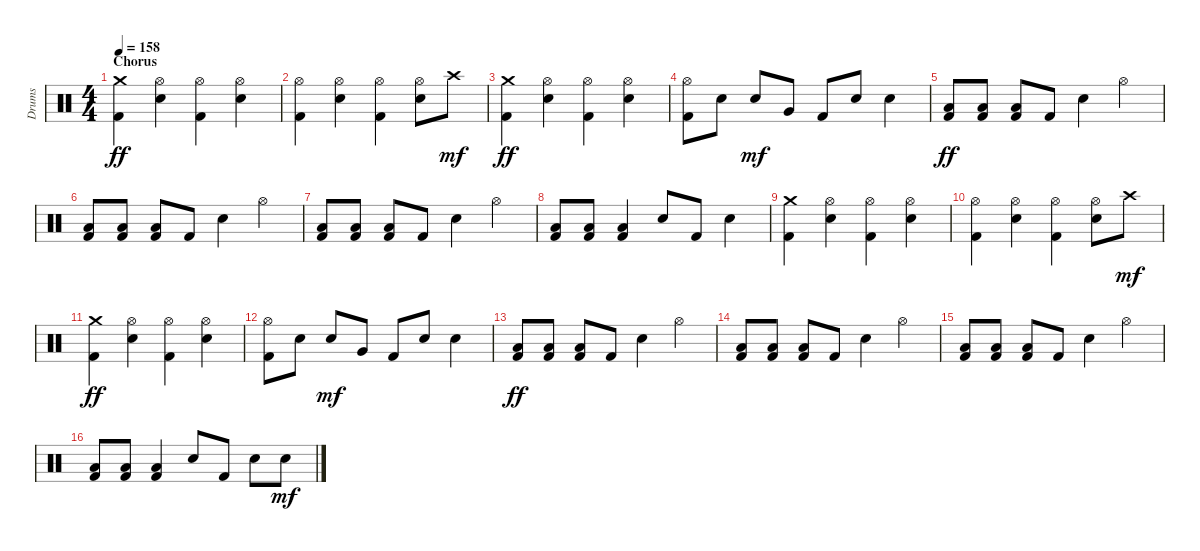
\track ("Drums" "Drums") {instrument percussion}
\staff {score}
\articulation defaults
\ts (4 4)
\section ("" "Chorus")
\tempo 158
\clef neutral
\ks c
("Crash medium (hit)" "Kick (hit) 2").4{dy ff} ("Hi-Hat (open)" "Electric Snare (hit)").4 ("Hi-Hat (open)" "Kick (hit) 2").4 ("Hi-Hat (open)" "Electric Snare (hit)").4 |
("Hi-Hat (open)" "Kick (hit) 2").4 ("Hi-Hat (open)" "Electric Snare (hit)").4 ("Hi-Hat (open)" "Kick (hit) 2").4 ("Hi-Hat (open)" "Electric Snare (hit)").8 "Crash high (hit)".8{dy mf} |
("Crash medium (hit)" "Kick (hit) 2").4{dy ff} ("Hi-Hat (open)" "Electric Snare (hit)").4 ("Hi-Hat (open)" "Kick (hit) 2").4 ("Hi-Hat (open)" "Electric Snare (hit)").4 |
("Hi-Hat (open)" "Kick (hit) 2").8 "Electric Snare (hit)".8 "Electric Snare (hit)".8{dy mf} "Very Low Tom (hit)".8 "Kick (hit) 2".8 "Electric Snare (hit)".8 "Electric Snare (hit)".4 |
("Low Floor Tom (hit)" "Kick (hit) 2").8{dy ff} ("Low Floor Tom (hit)" "Kick (hit) 2").8 ("Low Floor Tom (hit)" "Kick (hit) 2").8 "Kick (hit) 2".8 "Electric Snare (hit)".4 "Hi-Hat (open)".4 |
("Low Floor Tom (hit)" "Kick (hit) 2").8 ("Low Floor Tom (hit)" "Kick (hit) 2").8 ("Low Floor Tom (hit)" "Kick (hit) 2").8 "Kick (hit) 2".8 "Electric Snare (hit)".4 "Hi-Hat (open)".4 |
("Low Floor Tom (hit)" "Kick (hit) 2").8 ("Low Floor Tom (hit)" "Kick (hit) 2").8 ("Low Floor Tom (hit)" "Kick (hit) 2").8 "Kick (hit) 2".8 "Electric Snare (hit)".4 "Hi-Hat (open)".4 |
("Low Floor Tom (hit)" "Kick (hit) 2").8 ("Low Floor Tom (hit)" "Kick (hit) 2").8 ("Low Floor Tom (hit)" "Kick (hit) 2").4 "Electric Snare (hit)".8 "Kick (hit) 2".8 "Electric Snare (hit)".4 |
("Crash medium (hit)" "Kick (hit) 2").4 ("Hi-Hat (open)" "Electric Snare (hit)").4 ("Hi-Hat (open)" "Kick (hit) 2").4 ("Hi-Hat (open)" "Electric Snare (hit)").4 |
("Hi-Hat (open)" "Kick (hit) 2").4 ("Hi-Hat (open)" "Electric Snare (hit)").4 ("Hi-Hat (open)" "Kick (hit) 2").4 ("Hi-Hat (open)" "Electric Snare (hit)").8 "Crash high (hit)".8{dy mf} |
("Crash medium (hit)" "Kick (hit) 2").4{dy ff} ("Hi-Hat (open)" "Electric Snare (hit)").4 ("Hi-Hat (open)" "Kick (hit) 2").4 ("Hi-Hat (open)" "Electric Snare (hit)").4 |
("Hi-Hat (open)" "Kick (hit) 2").8 "Electric Snare (hit)".8 "Electric Snare (hit)".8{dy mf} "Very Low Tom (hit)".8 "Kick (hit) 2".8 "Electric Snare (hit)".8 "Electric Snare (hit)".4 |
("Low Floor Tom (hit)" "Kick (hit) 2").8{dy ff} ("Low Floor Tom (hit)" "Kick (hit) 2").8 ("Low Floor Tom (hit)" "Kick (hit) 2").8 "Kick (hit) 2".8 "Electric Snare (hit)".4 "Hi-Hat (open)".4 |
("Low Floor Tom (hit)" "Kick (hit) 2").8 ("Low Floor Tom (hit)" "Kick (hit) 2").8 ("Low Floor Tom (hit)" "Kick (hit) 2").8 "Kick (hit) 2".8 "Electric Snare (hit)".4 "Hi-Hat (open)".4 |
("Low Floor Tom (hit)" "Kick (hit) 2").8 ("Low Floor Tom (hit)" "Kick (hit) 2").8 ("Low Floor Tom (hit)" "Kick (hit) 2").8 "Kick (hit) 2".8 "Electric Snare (hit)".4 "Hi-Hat (open)".4 |
("Low Floor Tom (hit)" "Kick (hit) 2").8 ("Low Floor Tom (hit)" "Kick (hit) 2").8 ("Low Floor Tom (hit)" "Kick (hit) 2").4 "Electric Snare (hit)".8 "Kick (hit) 2".8 "Electric Snare (hit)".8 "Electric Snare (hit)".8{dy mf}
